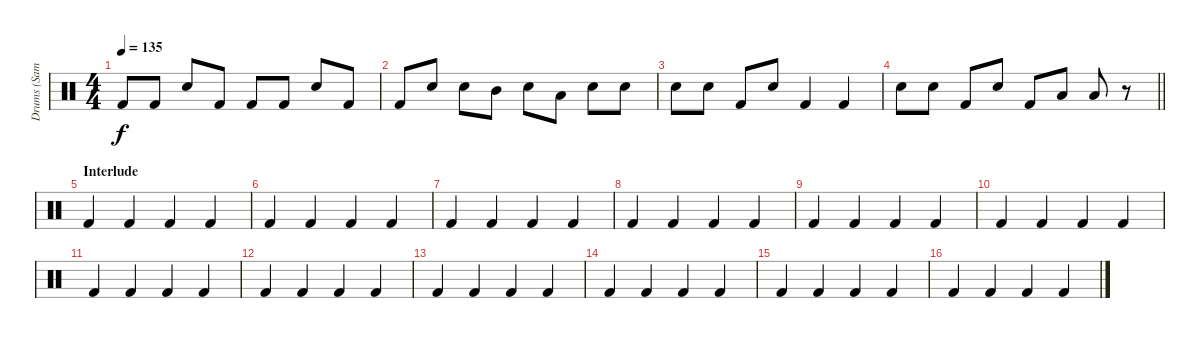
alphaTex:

\track ("Drums (Sam Fogarino)" "Drums (Sam") {instrument percussion}
\staff {score}
\articulation defaults
\ts (4 4)
\tempo 135
\clef neutral
\ks c "Kick (hit) 2".8{dy f} "Kick (hit) 2".8 "Snare (hit) 2".8 "Kick (hit) 2".8 "Kick (hit) 2".8 "Kick (hit) 2".8 "Snare (hit) 2".8 "Kick (hit) 2".8
|
"Kick (hit) 2".8 "Snare (hit) 2".8 "Snare (hit) 2".8 "Mid Tom (hit)".8 "Snare (hit) 2".8 "Low Tom (hit)".8 "Snare (hit) 2".8 "Snare (hit) 2".8 |
"Snare (hit) 2".8 "Snare (hit) 2".8 "Kick (hit) 2".8 "Snare (hit) 2".8 "Kick (hit) 2".4 "Kick (hit) 2".4 |
\barLineRight lightlight "Snare (hit) 2".8 "Snare (hit) 2".8 "Kick (hit) 2".8 "Snare (hit) 2".8 "Kick (hit) 2".8 "Low Tom (hit)".8 "Low Tom (hit)".8
r.8 |
\section ("" "Interlude")
"Kick (hit) 2".4 "Kick (hit) 2".4 "Kick (hit) 2".4 "Kick (hit) 2".4 |
"Kick (hit) 2".4 "Kick (hit) 2".4 "Kick (hit) 2".4 "Kick (hit) 2".4 |
"Kick (hit) 2".4 "Kick (hit) 2".4 "Kick (hit) 2".4 "Kick (hit) 2".4 |
"Kick (hit) 2".4 "Kick (hit) 2".4 "Kick (hit) 2".4 "Kick (hit) 2".4 |
"Kick (hit) 2".4 "Kick (hit) 2".4 "Kick (hit) 2".4 "Kick (hit) 2".4 |
"Kick (hit) 2".4 "Kick (hit) 2".4 "Kick (hit) 2".4 "Kick (hit) 2".4 |
"Kick (hit) 2".4 "Kick (hit) 2".4 "Kick (hit) 2".4 "Kick (hit) 2".4 |
"Kick (hit) 2".4 "Kick (hit) 2".4 "Kick (hit) 2".4 "Kick (hit) 2".4 |
"Kick (hit) 2".4 "Kick (hit) 2".4 "Kick (hit) 2".4 "Kick (hit) 2".4 |
"Kick (hit) 2".4 "Kick (hit) 2".4 "Kick (hit) 2".4 "Kick (hit) 2".4 |
"Kick (hit) 2".4 "Kick (hit) 2".4 "Kick (hit) 2".4 "Kick (hit) 2".4 |
"Kick (hit) 2".4 "Kick (hit) 2".4 "Kick (hit) 2".4 "Kick (hit) 2".4
